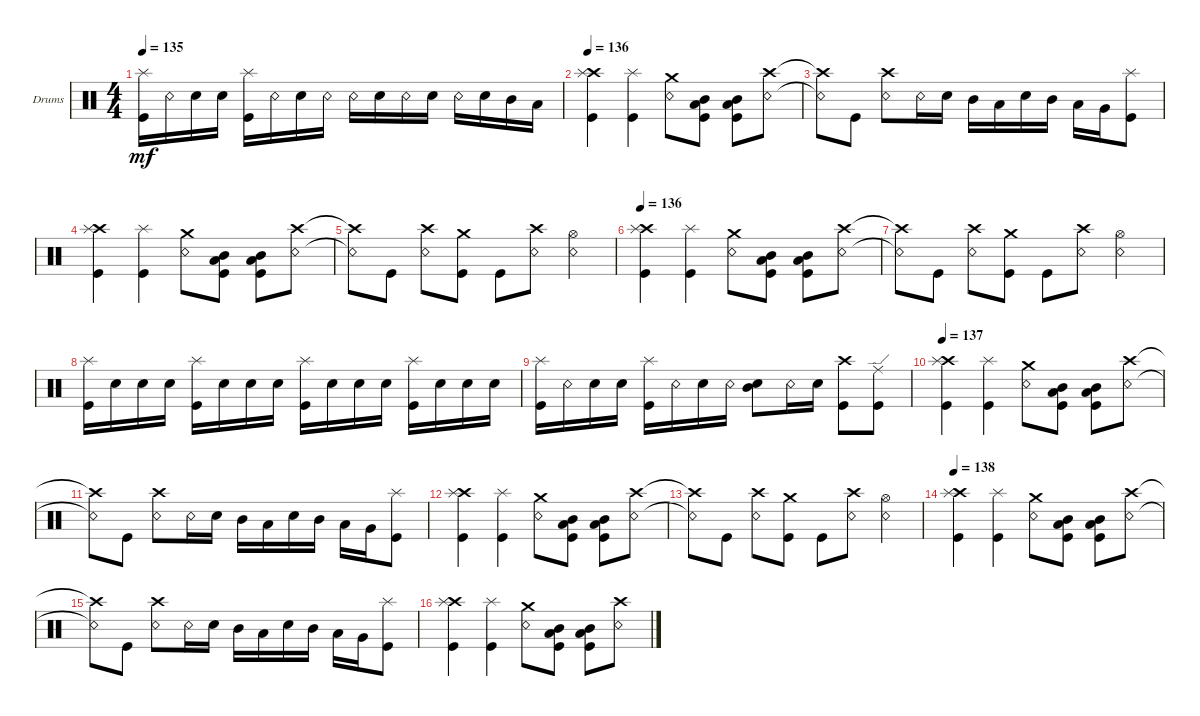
\defaultSystemsLayout 4
\bracketExtendMode groupsimilarinstruments
\firstSystemTrackNameOrientation horizontal
\otherSystemsTrackNameOrientation horizontal
\track ("Drumkit" "Drums") {instrument percussion}
\staff {score}
\articulation defaults
\ts (4 4)
\tempo 135
\clef neutral
\ks c
("Kick (hit)" "Splash (hit)").16{dy mf} "Snare (rim shot)".16 "Snare (hit) 2".16 "Snare (hit) 2".16 ("Kick (hit)" "Splash (hit)").16 "Snare (rim shot)".16 "Snare (hit) 2".16 "Snare (rim shot)".16 "Snare (rim shot)".16 "Snare (hit) 2".16 "Snare (rim shot)".16 "Snare (hit) 2".16 "Snare (rim shot)".16 "Snare (hit) 2".16 "Mid Tom (hit)".16 "Low Tom (hit)".16 |
\tempo 136
("Kick (hit)" "Crash high (hit)" "Splash (hit)").4 ("Kick (hit)" "Splash (hit)").4 ("Snare (rim shot)" "Crash medium (hit)").8 ("Kick (hit)" "Mid Tom (hit)" "Low Tom (hit)").8 ("Kick (hit)" "Low Tom (hit)" "Mid Tom (hit)").8 ("Crash high (hit)" "Snare (rim shot)").8 |
("Crash high (hit)"{t} "Snare (rim shot)"{t}).8 "Kick (hit)".8 ("Crash high (hit)" "Snare (rim shot)").8 "Snare (rim shot)".16 "Snare (hit) 2".16 "Mid Tom (hit)".16 "Low Tom (hit)".16 "Snare (hit) 2".16 "Mid Tom (hit)".16 "Low Tom (hit)".16 "Very Low Tom (hit)".16 ("Kick (hit)" "Splash (hit)").8 |
("Kick (hit)" "Crash high (hit)" "Splash (hit)").4 ("Kick (hit)" "Splash (hit)").4 ("Snare (rim shot)" "Crash medium (hit)").8 ("Kick (hit)" "Mid Tom (hit)" "Low Tom (hit)").8 ("Kick (hit)" "Low Tom (hit)" "Mid Tom (hit)").8 ("Crash high (hit)" "Snare (rim shot)").8 |
("Crash high (hit)"{t} "Snare (rim shot)"{t}).8 "Kick (hit)".8 ("Crash high (hit)" "Snare (rim shot)").8 ("Kick (hit)" "Crash medium (hit)").8 "Kick (hit)".8 ("Crash high (hit)" "Snare (rim shot)").8 ("Snare (rim shot)" "Hi-Hat (open)").4 |
\tempo 136
("Kick (hit)" "Crash high (hit)" "Splash (hit)").4 ("Kick (hit)" "Splash (hit)").4 ("Snare (rim shot)" "Crash medium (hit)").8 ("Kick (hit)" "Mid Tom (hit)" "Low Tom (hit)").8 ("Kick (hit)" "Low Tom (hit)" "Mid Tom (hit)").8 ("Crash high (hit)" "Snare (rim shot)").8 |
("Crash high (hit)"{t} "Snare (rim shot)"{t}).8 "Kick (hit)".8 ("Crash high (hit)" "Snare (rim shot)").8 ("Kick (hit)" "Crash medium (hit)").8 "Kick (hit)".8 ("Crash high (hit)" "Snare (rim shot)").8 ("Snare (rim shot)" "Hi-Hat (open)").4 |
("Kick (hit)" "Splash (hit)").16 "Snare (hit) 2".16 "Snare (hit) 2".16 "Snare (hit) 2".16 ("Kick (hit)" "Splash (hit)").16 "Snare (hit) 2".16 "Snare (hit) 2".16 "Snare (hit) 2".16 ("Kick (hit)" "Splash (hit)").16 "Snare (hit) 2".16 "Snare (hit) 2".16 "Snare (hit) 2".16 ("Kick (hit)" "Splash (hit)").16 "Snare (hit) 2".16 "Snare (hit) 2".16 "Snare (hit) 2".16 |
("Kick (hit)" "Splash (hit)").16 "Snare (rim shot)".16 "Snare (hit) 2".16 "Snare (hit) 2".16 ("Kick (hit)" "Splash (hit)").16 "Snare (rim shot)".16 "Snare (hit) 2".16 "Snare (rim shot)".16 ("Snare (hit) 2" "Mid Tom (hit)").8 "Snare (rim shot)".16 "Snare (hit) 2".16 ("Kick (hit)" "Crash high (hit)").8 ("Kick (hit)" "Ride (edge)").8 |
\tempo 137
("Kick (hit)" "Crash high (hit)" "Splash (hit)").4 ("Kick (hit)" "Splash (hit)").4 ("Snare (rim shot)" "Crash medium (hit)").8 ("Kick (hit)" "Mid Tom (hit)" "Low Tom (hit)").8 ("Kick (hit)" "Low Tom (hit)" "Mid Tom (hit)").8 ("Crash high (hit)" "Snare (rim shot)").8 |
("Crash high (hit)"{t} "Snare (rim shot)"{t}).8 "Kick (hit)".8 ("Crash high (hit)" "Snare (rim shot)").8 "Snare (rim shot)".16 "Snare (hit) 2".16 "Mid Tom (hit)".16 "Low Tom (hit)".16 "Snare (hit) 2".16 "Mid Tom (hit)".16 "Low Tom (hit)".16 "Very Low Tom (hit)".16 ("Kick (hit)" "Splash (hit)").8 |
("Kick (hit)" "Crash high (hit)" "Splash (hit)").4 ("Kick (hit)" "Splash (hit)").4 ("Snare (rim shot)" "Crash medium (hit)").8 ("Kick (hit)" "Mid Tom (hit)" "Low Tom (hit)").8 ("Kick (hit)" "Low Tom (hit)" "Mid Tom (hit)").8 ("Crash high (hit)" "Snare (rim shot)").8 |
("Crash high (hit)"{t} "Snare (rim shot)"{t}).8 "Kick (hit)".8 ("Crash high (hit)" "Snare (rim shot)").8 ("Kick (hit)" "Crash medium (hit)").8 "Kick (hit)".8 ("Crash high (hit)" "Snare (rim shot)").8 ("Snare (rim shot)" "Hi-Hat (open)").4 |
\tempo 138
("Kick (hit)" "Crash high (hit)" "Splash (hit)").4 ("Kick (hit)" "Splash (hit)").4 ("Snare (rim shot)" "Crash medium (hit)").8 ("Kick (hit)" "Mid Tom (hit)" "Low Tom (hit)").8 ("Kick (hit)" "Low Tom (hit)" "Mid Tom (hit)").8 ("Crash high (hit)" "Snare (rim shot)").8 |
("Crash high (hit)"{t} "Snare (rim shot)"{t}).8 "Kick (hit)".8 ("Crash high (hit)" "Snare (rim shot)").8 "Snare (rim shot)".16 "Snare (hit) 2".16 "Mid Tom (hit)".16 "Low Tom (hit)".16 "Snare (hit) 2".16 "Mid Tom (hit)".16 "Low Tom (hit)".16 "Very Low Tom (hit)".16 ("Kick (hit)" "Splash (hit)").8 |
("Kick (hit)" "Crash high (hit)" "Splash (hit)").4 ("Kick (hit)" "Splash (hit)").4 ("Snare (rim shot)" "Crash medium (hit)").8 ("Kick (hit)" "Mid Tom (hit)" "Low Tom (hit)").8 ("Kick (hit)" "Low Tom (hit)" "Mid Tom (hit)").8 ("Crash high (hit)" "Snare (rim shot)").8
